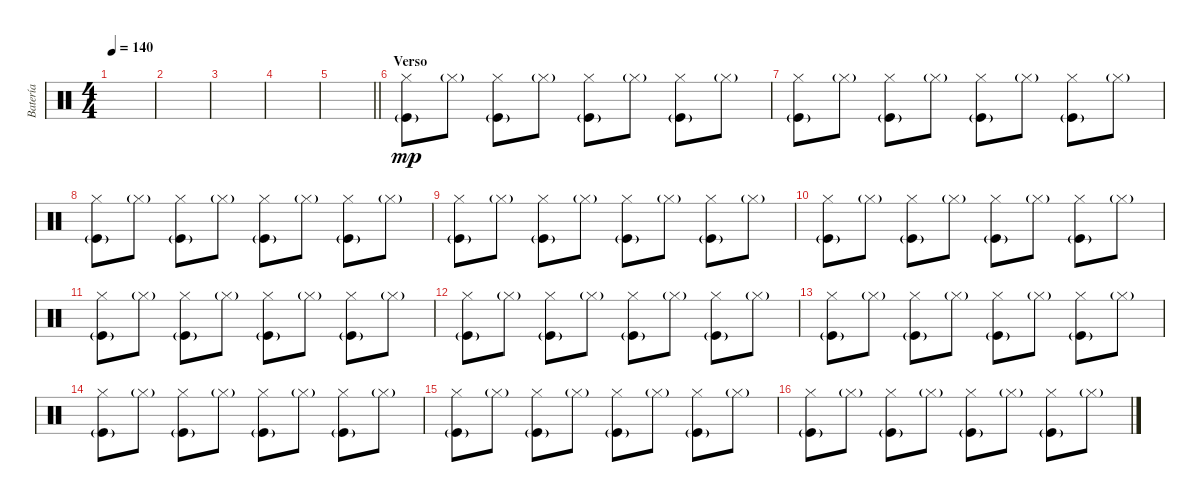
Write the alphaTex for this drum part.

\track ("Batería" "Batería") {instrument percussion}
\staff {score}
\articulation defaults
\ts (4 4)
\tempo 140
\clef neutral
\ks c
|
|
|
|
\barLineRight lightlight
|
\section ("" "Verso")
("Hi-Hat (closed)" "Kick (hit)"{g}).8{dy mp} "Hi-Hat (closed)"{g}.8 ("Hi-Hat (closed)" "Kick (hit)"{g}).8 "Hi-Hat (closed)"{g}.8 ("Hi-Hat (closed)" "Kick (hit)"{g}).8 "Hi-Hat (closed)"{g}.8 ("Hi-Hat (closed)" "Kick (hit)"{g}).8 "Hi-Hat (closed)"{g}.8 |
("Hi-Hat (closed)" "Kick (hit)"{g}).8 "Hi-Hat (closed)"{g}.8 ("Hi-Hat (closed)" "Kick (hit)"{g}).8 "Hi-Hat (closed)"{g}.8 ("Hi-Hat (closed)" "Kick (hit)"{g}).8 "Hi-Hat (closed)"{g}.8 ("Hi-Hat (closed)" "Kick (hit)"{g}).8 "Hi-Hat (closed)"{g}.8 |
("Hi-Hat (closed)" "Kick (hit)"{g}).8 "Hi-Hat (closed)"{g}.8 ("Hi-Hat (closed)" "Kick (hit)"{g}).8 "Hi-Hat (closed)"{g}.8 ("Hi-Hat (closed)" "Kick (hit)"{g}).8 "Hi-Hat (closed)"{g}.8 ("Hi-Hat (closed)" "Kick (hit)"{g}).8 "Hi-Hat (closed)"{g}.8 |
("Hi-Hat (closed)" "Kick (hit)"{g}).8 "Hi-Hat (closed)"{g}.8 ("Hi-Hat (closed)" "Kick (hit)"{g}).8 "Hi-Hat (closed)"{g}.8 ("Hi-Hat (closed)" "Kick (hit)"{g}).8 "Hi-Hat (closed)"{g}.8 ("Hi-Hat (closed)" "Kick (hit)"{g}).8 "Hi-Hat (closed)"{g}.8 |
("Hi-Hat (closed)" "Kick (hit)"{g}).8 "Hi-Hat (closed)"{g}.8 ("Hi-Hat (closed)" "Kick (hit)"{g}).8 "Hi-Hat (closed)"{g}.8 ("Hi-Hat (closed)" "Kick (hit)"{g}).8 "Hi-Hat (closed)"{g}.8 ("Hi-Hat (closed)" "Kick (hit)"{g}).8 "Hi-Hat (closed)"{g}.8 |
("Hi-Hat (closed)" "Kick (hit)"{g}).8 "Hi-Hat (closed)"{g}.8 ("Hi-Hat (closed)" "Kick (hit)"{g}).8 "Hi-Hat (closed)"{g}.8 ("Hi-Hat (closed)" "Kick (hit)"{g}).8 "Hi-Hat (closed)"{g}.8 ("Hi-Hat (closed)" "Kick (hit)"{g}).8 "Hi-Hat (closed)"{g}.8 |
("Hi-Hat (closed)" "Kick (hit)"{g}).8 "Hi-Hat (closed)"{g}.8 ("Hi-Hat (closed)" "Kick (hit)"{g}).8 "Hi-Hat (closed)"{g}.8 ("Hi-Hat (closed)" "Kick (hit)"{g}).8 "Hi-Hat (closed)"{g}.8 ("Hi-Hat (closed)" "Kick (hit)"{g}).8 "Hi-Hat (closed)"{g}.8 |
("Hi-Hat (closed)" "Kick (hit)"{g}).8 "Hi-Hat (closed)"{g}.8 ("Hi-Hat (closed)" "Kick (hit)"{g}).8 "Hi-Hat (closed)"{g}.8 ("Hi-Hat (closed)" "Kick (hit)"{g}).8 "Hi-Hat (closed)"{g}.8 ("Hi-Hat (closed)" "Kick (hit)"{g}).8 "Hi-Hat (closed)"{g}.8 |
("Hi-Hat (closed)" "Kick (hit)"{g}).8 "Hi-Hat (closed)"{g}.8 ("Hi-Hat (closed)" "Kick (hit)"{g}).8 "Hi-Hat (closed)"{g}.8 ("Hi-Hat (closed)" "Kick (hit)"{g}).8 "Hi-Hat (closed)"{g}.8 ("Hi-Hat (closed)" "Kick (hit)"{g}).8 "Hi-Hat (closed)"{g}.8 |
("Hi-Hat (closed)" "Kick (hit)"{g}).8 "Hi-Hat (closed)"{g}.8 ("Hi-Hat (closed)" "Kick (hit)"{g}).8 "Hi-Hat (closed)"{g}.8 ("Hi-Hat (closed)" "Kick (hit)"{g}).8 "Hi-Hat (closed)"{g}.8 ("Hi-Hat (closed)" "Kick (hit)"{g}).8 "Hi-Hat (closed)"{g}.8 |
("Hi-Hat (closed)" "Kick (hit)"{g}).8 "Hi-Hat (closed)"{g}.8 ("Hi-Hat (closed)" "Kick (hit)"{g}).8 "Hi-Hat (closed)"{g}.8 ("Hi-Hat (closed)" "Kick (hit)"{g}).8 "Hi-Hat (closed)"{g}.8 ("Hi-Hat (closed)" "Kick (hit)"{g}).8 "Hi-Hat (closed)"{g}.8
